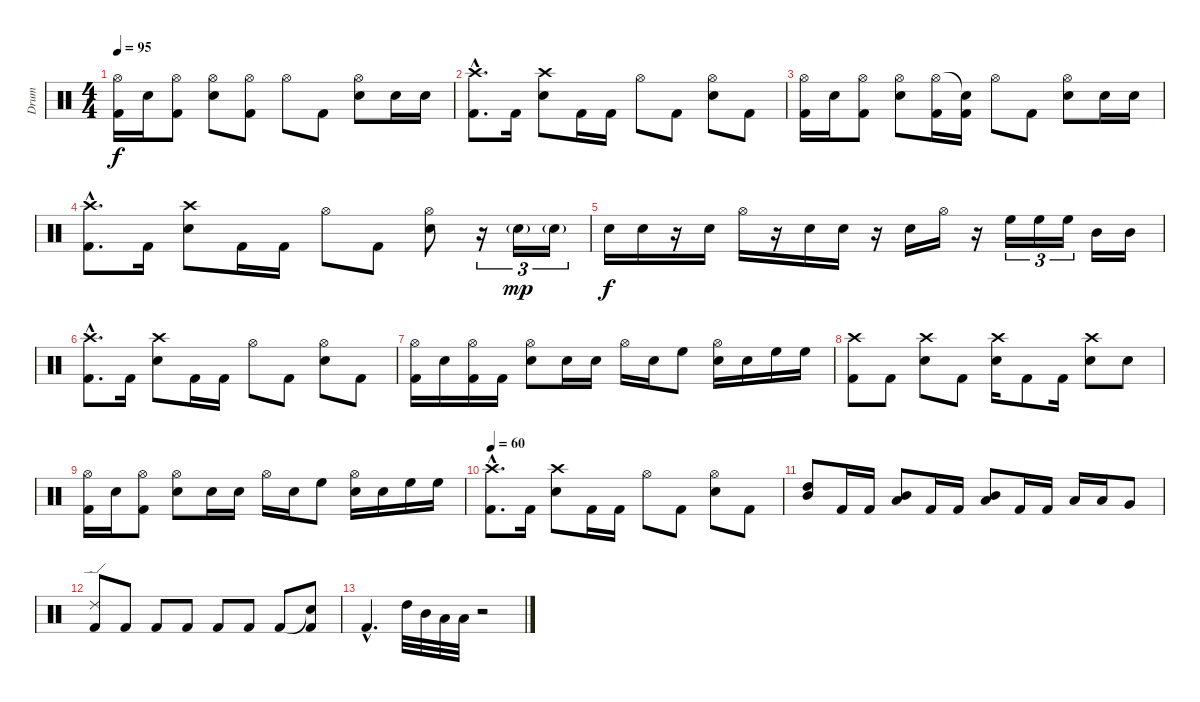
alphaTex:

\track ("Drum" "Drum") {instrument percussion}
\staff {score}
\articulation defaults
\ts (4 4)
\tempo 95
\clef neutral
\ks c
("Hi-Hat (open)" "Kick (hit) 2").16{dy f} "Electric Snare (hit)".16 ("Hi-Hat (open)" "Kick (hit) 2").8 ("Hi-Hat (open)" "Electric Snare (hit)").8 ("Hi-Hat (open)" "Kick (hit) 2").8 "Hi-Hat (open)".8 "Kick (hit) 2".8 ("Hi-Hat (open)" "Electric Snare (hit)").8 "Electric Snare (hit)".16 "Electric Snare (hit)".16 |
("Crash high (hit)"{hac} "Kick (hit) 2"{hac}).8{d} "Kick (hit) 2".16 ("Crash high (hit)" "Electric Snare (hit)").8 "Kick (hit) 2".16 "Kick (hit) 2".16 "Hi-Hat (open)".8 "Kick (hit) 2".8 ("Hi-Hat (open)" "Electric Snare (hit)").8 "Kick (hit) 2".8 |
("Hi-Hat (open)" "Kick (hit) 2").16 "Electric Snare (hit)".16 ("Hi-Hat (open)" "Kick (hit) 2").8 ("Hi-Hat (open)" "Electric Snare (hit)").8 ("Hi-Hat (open)" "Kick (hit) 2").16 ("Snare (hit)"{t} "Kick (hit) 2").16 "Hi-Hat (open)".8 "Kick (hit) 2".8 ("Hi-Hat (open)" "Electric Snare (hit)").8 "Electric Snare (hit)".16 "Electric Snare (hit)".16 |
("Crash high (hit)"{hac} "Kick (hit) 2"{hac}).8{d} "Kick (hit) 2".16 ("Crash high (hit)" "Electric Snare (hit)").8 "Kick (hit) 2".16 "Kick (hit) 2".16 "Hi-Hat (open)".8 "Kick (hit) 2".8 ("Hi-Hat (open)" "Electric Snare (hit)").8 r.16{tu (3 2)} "Electric Snare (hit)"{g}.16{tu (3 2) dy mp} "Electric Snare (hit)"{g}.16{tu (3 2)} |
"Electric Snare (hit)".16{dy f} "Electric Snare (hit)".16 r.16 "Electric Snare (hit)".16 "Hi-Hat (open)".16 r.16 "Electric Snare (hit)".16 "Electric Snare (hit)".16 r.16 "Electric Snare (hit)".16 "Hi-Hat (open)".16 r.16 "High Floor Tom (hit)".16{tu (3 2)} "High Floor Tom (hit)".16{tu (3 2)} "High Floor Tom (hit)".16{tu (3 2)} "Mid Tom (hit)".16 "Mid Tom (hit)".16 |
("Crash high (hit)"{hac} "Kick (hit) 2"{hac}).8{d} "Kick (hit) 2".16 ("Crash high (hit)" "Electric Snare (hit)").8 "Kick (hit) 2".16 "Kick (hit) 2".16 "Hi-Hat (open)".8 "Kick (hit) 2".8 ("Hi-Hat (open)" "Electric Snare (hit)").8 "Kick (hit) 2".8 |
("Hi-Hat (open)" "Kick (hit) 2").16 "Electric Snare (hit)".16 ("Hi-Hat (open)" "Kick (hit) 2").16 "Kick (hit) 2".16 ("Hi-Hat (open)" "Electric Snare (hit)").8 "Electric Snare (hit)".16 "Electric Snare (hit)".16 "Hi-Hat (open)".16 "Electric Snare (hit)".16 "High Floor Tom (hit)".8 ("Hi-Hat (open)" "Electric Snare (hit)").16 "Electric Snare (hit)".16 "High Floor Tom (hit)".16 "High Floor Tom (hit)".16 |
("Crash high (hit)" "Kick (hit) 2").8 "Kick (hit) 2".8 ("Crash high (hit)" "Electric Snare (hit)").8 "Kick (hit) 2".8 ("Crash high (hit)" "Electric Snare (hit)").16 "Kick (hit) 2".8 "Kick (hit) 2".16 ("Crash high (hit)" "Electric Snare (hit)").8 "Electric Snare (hit)".8 |
("Hi-Hat (open)" "Kick (hit) 2").16 "Electric Snare (hit)".16 ("Hi-Hat (open)" "Kick (hit) 2").8 ("Hi-Hat (open)" "Electric Snare (hit)").8 "Electric Snare (hit)".16 "Electric Snare (hit)".16 "Hi-Hat (open)".16 "Electric Snare (hit)".16 "High Floor Tom (hit)".8 ("Hi-Hat (open)" "Electric Snare (hit)").16 "Electric Snare (hit)".16 "High Floor Tom (hit)".16 "High Floor Tom (hit)".16 |
\tempo 60
("Crash high (hit)"{hac} "Kick (hit) 2"{hac}).8{d} "Kick (hit) 2".16 ("Crash high (hit)" "Electric Snare (hit)").8 "Kick (hit) 2".16 "Kick (hit) 2".16 "Hi-Hat (open)".8 "Kick (hit) 2".8 ("Hi-Hat (open)" "Electric Snare (hit)").8 "Kick (hit) 2".8 |
("High Tom (hit)" "Mid Tom (hit)").8 "Kick (hit) 2".16 "Kick (hit) 2".16 ("Mid Tom (hit)" "Low Tom (hit)").8 "Kick (hit) 2".16 "Kick (hit) 2".16 ("Mid Tom (hit)" "Low Tom (hit)").8 "Kick (hit) 2".16 "Kick (hit) 2".16 "Low Tom (hit)".16 "Low Tom (hit)".16 "Very Low Tom (hit)".8 |
("Ride (edge) 2"{tr (59 64)} "Kick (hit) 2").8 "Kick (hit) 2".8 "Kick (hit) 2".8 "Kick (hit) 2".8 "Kick (hit) 2".8 "Kick (hit) 2".8 "Kick (hit) 2".8 ("Snare (hit)"{t} "Kick (hit) 2").8 |
"Kick (hit) 2"{hac}.4{d} "High Tom (hit)".32 "Mid Tom (hit)".32 "Low Tom (hit)".32 "Low Tom (hit)".32 r.2
